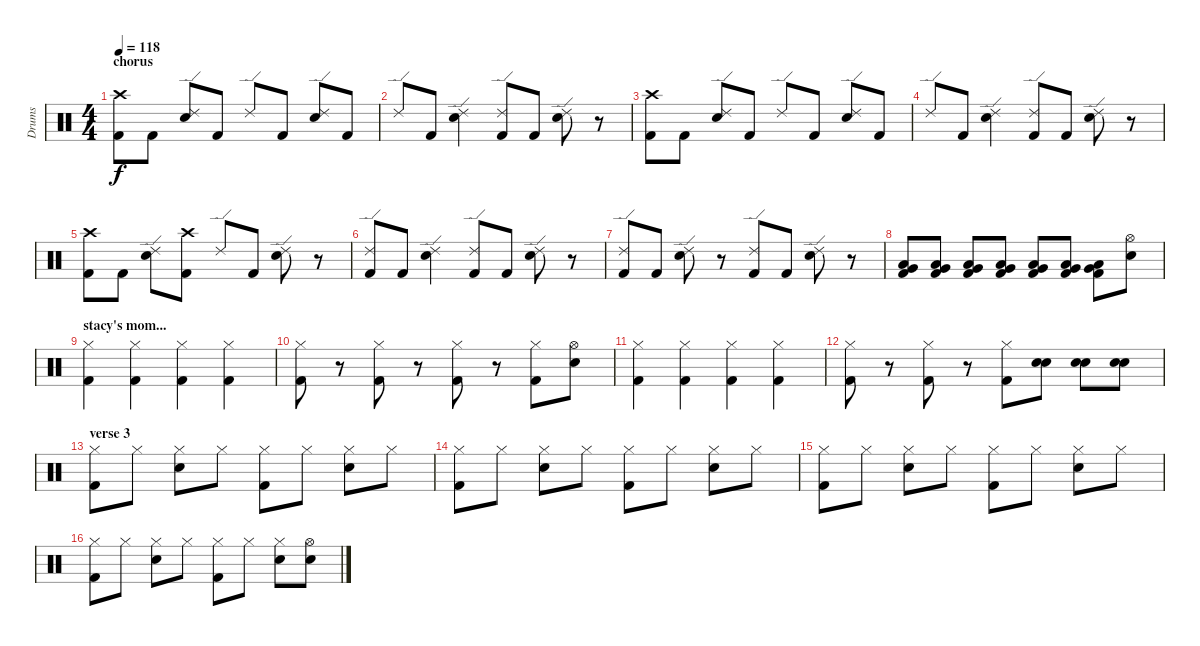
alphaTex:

\track ("Drums" "Drums") {instrument percussion}
\staff {score}
\articulation defaults
\ts (4 4)
\section ("" "chorus")
\tempo 118
\clef neutral
\ks c
("Crash high (hit)" "Kick (hit) 2").8{dy f} "Kick (hit) 2".8 ("Ride (edge) 2" "Electric Snare (hit)").8 "Kick (hit) 2".8 "Ride (edge) 2".8 "Kick (hit) 2".8 ("Ride (edge) 2" "Electric Snare (hit)").8 "Kick (hit) 2".8 |
"Ride (edge) 2".8 "Kick (hit) 2".8 ("Ride (edge) 2" "Electric Snare (hit)").4 ("Ride (edge) 2" "Kick (hit) 2").8 "Kick (hit) 2".8 ("Ride (edge) 2" "Electric Snare (hit)").8 r.8 |
("Crash high (hit)" "Kick (hit) 2").8 "Kick (hit) 2".8 ("Ride (edge) 2" "Electric Snare (hit)").8 "Kick (hit) 2".8 "Ride (edge) 2".8 "Kick (hit) 2".8 ("Ride (edge) 2" "Electric Snare (hit)").8 "Kick (hit) 2".8 |
"Ride (edge) 2".8 "Kick (hit) 2".8 ("Ride (edge) 2" "Electric Snare (hit)").4 ("Ride (edge) 2" "Kick (hit) 2").8 "Kick (hit) 2".8 ("Ride (edge) 2" "Electric Snare (hit)").8 r.8 |
("Crash high (hit)" "Kick (hit) 2").8 "Kick (hit) 2".8 ("Ride (edge) 2" "Electric Snare (hit)").8 ("Crash high (hit)" "Kick (hit) 2").8 "Ride (edge) 2".8 "Kick (hit) 2".8 ("Ride (edge) 2" "Electric Snare (hit)").8 r.8 |
("Ride (edge) 2" "Kick (hit) 2").8 "Kick (hit) 2".8 ("Ride (edge) 2" "Electric Snare (hit)").4 ("Ride (edge) 2" "Kick (hit) 2").8 "Kick (hit) 2".8 ("Ride (edge) 2" "Electric Snare (hit)").8 r.8 |
("Ride (edge) 2" "Kick (hit) 2").8 "Kick (hit) 2".8 ("Ride (edge) 2" "Electric Snare (hit)").8 r.8 ("Ride (edge) 2" "Kick (hit) 2").8 "Kick (hit) 2".8 ("Ride (edge) 2" "Electric Snare (hit)").8 r.8 |
("Low Tom (hit)" "Very Low Tom (hit)" "Kick (hit) 2").8 ("Low Tom (hit)" "Very Low Tom (hit)" "Kick (hit) 2").8 ("Low Tom (hit)" "Very Low Tom (hit)" "Kick (hit) 2").8 ("Low Tom (hit)" "Very Low Tom (hit)" "Kick (hit) 2").8 ("Low Tom (hit)" "Very Low Tom (hit)" "Kick (hit) 2").8 ("Low Tom (hit)" "Very Low Tom (hit)" "Kick (hit) 2").8 ("Low Tom (hit)" "Very Low Tom (hit)" "Kick (hit) 2").8 ("Hi-Hat (open)" "Electric Snare (hit)").8 |
\section ("" "stacy's mom...")
("Hi-Hat (closed)" "Kick (hit) 2").4 ("Hi-Hat (closed)" "Kick (hit) 2").4 ("Hi-Hat (closed)" "Kick (hit) 2").4 ("Hi-Hat (closed)" "Kick (hit) 2").4 |
("Hi-Hat (closed)" "Kick (hit) 2").8 r.8 ("Hi-Hat (closed)" "Kick (hit) 2").8 r.8 ("Hi-Hat (closed)" "Kick (hit) 2").8 r.8 ("Hi-Hat (closed)" "Kick (hit) 2").8 ("Hi-Hat (open)" "Electric Snare (hit)").8 |
("Hi-Hat (closed)" "Kick (hit) 2").4 ("Hi-Hat (closed)" "Kick (hit) 2").4 ("Hi-Hat (closed)" "Kick (hit) 2").4 ("Hi-Hat (closed)" "Kick (hit) 2").4 |
("Hi-Hat (closed)" "Kick (hit) 2").8 r.8 ("Hi-Hat (closed)" "Kick (hit) 2").8 r.8 ("Hi-Hat (closed)" "Kick (hit) 2").8 ("Hand Clap (hit)" "Electric Snare (hit)").8 ("Hand Clap (hit)" "Electric Snare (hit)").8 ("Hand Clap (hit)" "Electric Snare (hit)").8 |
\section ("" "verse 3")
("Hi-Hat (closed)" "Kick (hit) 2").8 "Hi-Hat (closed)".8 ("Hi-Hat (closed)" "Electric Snare (hit)").8 "Hi-Hat (closed)".8 ("Hi-Hat (closed)" "Kick (hit) 2").8 "Hi-Hat (closed)".8 ("Hi-Hat (closed)" "Electric Snare (hit)").8 "Hi-Hat (closed)".8 |
("Hi-Hat (closed)" "Kick (hit) 2").8 "Hi-Hat (closed)".8 ("Hi-Hat (closed)" "Electric Snare (hit)").8 "Hi-Hat (closed)".8 ("Hi-Hat (closed)" "Kick (hit) 2").8 "Hi-Hat (closed)".8 ("Hi-Hat (closed)" "Electric Snare (hit)").8 "Hi-Hat (closed)".8 |
("Hi-Hat (closed)" "Kick (hit) 2").8 "Hi-Hat (closed)".8 ("Hi-Hat (closed)" "Electric Snare (hit)").8 "Hi-Hat (closed)".8 ("Hi-Hat (closed)" "Kick (hit) 2").8 "Hi-Hat (closed)".8 ("Hi-Hat (closed)" "Electric Snare (hit)").8 "Hi-Hat (closed)".8 |
("Hi-Hat (closed)" "Kick (hit) 2").8 "Hi-Hat (closed)".8 ("Hi-Hat (closed)" "Electric Snare (hit)").8 "Hi-Hat (closed)".8 ("Hi-Hat (closed)" "Kick (hit) 2").8 "Hi-Hat (closed)".8 ("Hi-Hat (closed)" "Electric Snare (hit)").8 ("Hi-Hat (open)" "Electric Snare (hit)").8
